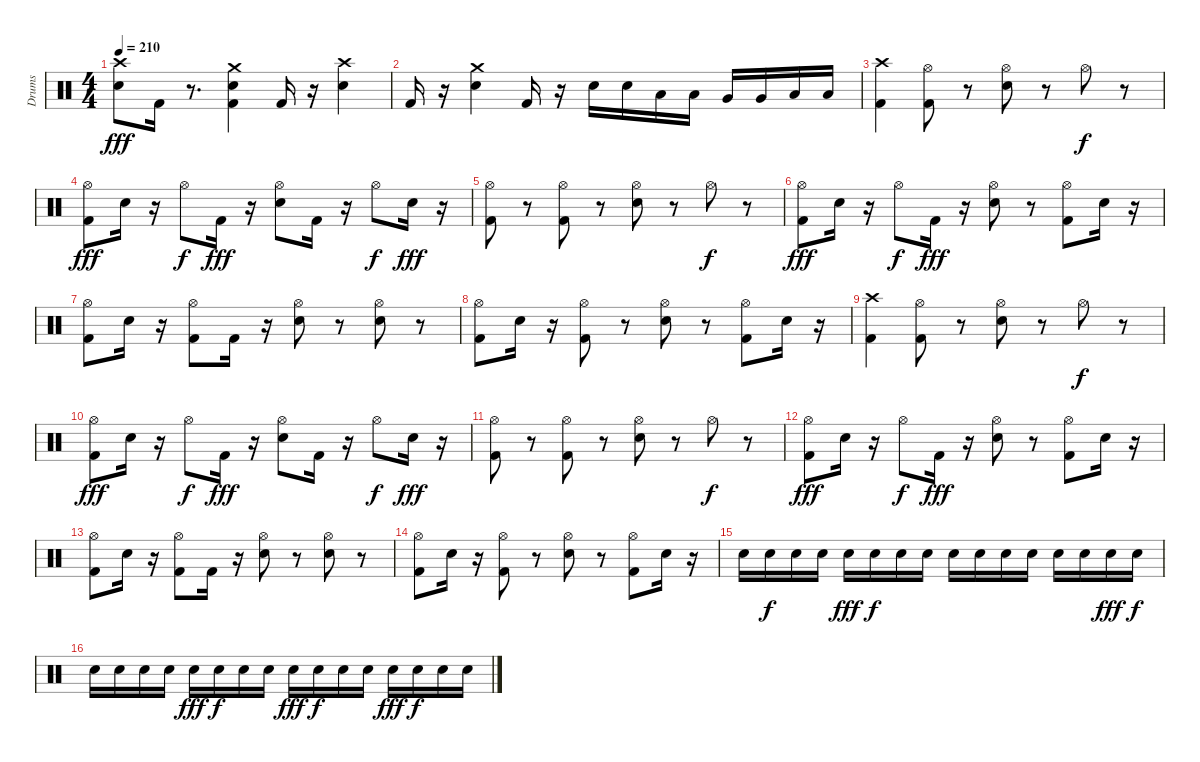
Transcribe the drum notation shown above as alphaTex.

\track ("Drums" "Drums") {instrument percussion}
\staff {score}
\articulation defaults
\ts (4 4)
\tempo 210
\clef neutral
\ks c
("Electric Snare (hit)" "Crash high (hit)").8{dy fff} "Kick (hit) 2".16 r.8{d} ("Electric Snare (hit)" "Kick (hit) 2" "Crash medium (hit)").4 "Kick (hit) 2".16 r.16 ("Electric Snare (hit)" "Crash high (hit)").4 |
"Kick (hit) 2".16 r.16 ("Electric Snare (hit)" "Crash medium (hit)").4 "Kick (hit) 2".16 r.16 "Electric Snare (hit)".16 "Electric Snare (hit)".16 "Low Tom (hit)".16 "Low Tom (hit)".16 "Very Low Tom (hit)".16 "Very Low Tom (hit)".16 "Low Floor Tom (hit)".16 "Low Floor Tom (hit)".16 |
("Kick (hit) 2" "Crash high (hit)").4 ("Kick (hit) 2" "Hi-Hat (open)").8 r.8 ("Electric Snare (hit)" "Hi-Hat (open)").8 r.8 "Hi-Hat (open)".8{dy f} r.8 |
("Kick (hit) 2" "Hi-Hat (open)").8{dy fff} "Electric Snare (hit)".16 r.16 "Hi-Hat (open)".8{dy f} "Kick (hit) 2".16{dy fff} r.16 ("Electric Snare (hit)" "Hi-Hat (open)").8 "Kick (hit) 2".16 r.16 "Hi-Hat (open)".8{dy f} "Electric Snare (hit)".16{dy fff} r.16 |
("Kick (hit) 2" "Hi-Hat (open)").8 r.8 ("Kick (hit) 2" "Hi-Hat (open)").8 r.8 ("Electric Snare (hit)" "Hi-Hat (open)").8 r.8 "Hi-Hat (open)".8{dy f} r.8 |
("Kick (hit) 2" "Hi-Hat (open)").8{dy fff} "Electric Snare (hit)".16 r.16 "Hi-Hat (open)".8{dy f} "Kick (hit) 2".16{dy fff} r.16 ("Electric Snare (hit)" "Hi-Hat (open)").8 r.8 ("Kick (hit) 2" "Hi-Hat (open)").8 "Electric Snare (hit)".16 r.16 |
("Kick (hit) 2" "Hi-Hat (open)").8 "Electric Snare (hit)".16 r.16 ("Kick (hit) 2" "Hi-Hat (open)").8 "Kick (hit) 2".16 r.16 ("Electric Snare (hit)" "Hi-Hat (open)").8 r.8 ("Electric Snare (hit)" "Hi-Hat (open)").8 r.8 |
("Kick (hit) 2" "Hi-Hat (open)").8 "Electric Snare (hit)".16 r.16 ("Kick (hit) 2" "Hi-Hat (open)").8 r.8 ("Electric Snare (hit)" "Hi-Hat (open)").8 r.8 ("Kick (hit) 2" "Hi-Hat (open)").8 "Electric Snare (hit)".16 r.16 |
("Kick (hit) 2" "Crash high (hit)").4 ("Kick (hit) 2" "Hi-Hat (open)").8 r.8 ("Electric Snare (hit)" "Hi-Hat (open)").8 r.8 "Hi-Hat (open)".8{dy f} r.8 |
("Kick (hit) 2" "Hi-Hat (open)").8{dy fff} "Electric Snare (hit)".16 r.16 "Hi-Hat (open)".8{dy f} "Kick (hit) 2".16{dy fff} r.16 ("Electric Snare (hit)" "Hi-Hat (open)").8 "Kick (hit) 2".16 r.16 "Hi-Hat (open)".8{dy f} "Electric Snare (hit)".16{dy fff} r.16 |
("Kick (hit) 2" "Hi-Hat (open)").8 r.8 ("Kick (hit) 2" "Hi-Hat (open)").8 r.8 ("Electric Snare (hit)" "Hi-Hat (open)").8 r.8 "Hi-Hat (open)".8{dy f} r.8 |
("Kick (hit) 2" "Hi-Hat (open)").8{dy fff} "Electric Snare (hit)".16 r.16 "Hi-Hat (open)".8{dy f} "Kick (hit) 2".16{dy fff} r.16 ("Electric Snare (hit)" "Hi-Hat (open)").8 r.8 ("Kick (hit) 2" "Hi-Hat (open)").8 "Electric Snare (hit)".16 r.16 |
("Kick (hit) 2" "Hi-Hat (open)").8 "Electric Snare (hit)".16 r.16 ("Kick (hit) 2" "Hi-Hat (open)").8 "Kick (hit) 2".16 r.16 ("Electric Snare (hit)" "Hi-Hat (open)").8 r.8 ("Electric Snare (hit)" "Hi-Hat (open)").8 r.8 |
("Kick (hit) 2" "Hi-Hat (open)").8 "Electric Snare (hit)".16 r.16 ("Kick (hit) 2" "Hi-Hat (open)").8 r.8 ("Electric Snare (hit)" "Hi-Hat (open)").8 r.8 ("Kick (hit) 2" "Hi-Hat (open)").8 "Electric Snare (hit)".16 r.16 |
"Electric Snare (hit)".16 "Electric Snare (hit)".16{dy f} "Electric Snare (hit)".16 "Electric Snare (hit)".16 "Electric Snare (hit)".16{dy fff} "Electric Snare (hit)".16{dy f} "Electric Snare (hit)".16 "Electric Snare (hit)".16 "Electric Snare (hit)".16 "Electric Snare (hit)".16 "Electric Snare (hit)".16 "Electric Snare (hit)".16 "Electric Snare (hit)".16 "Electric Snare (hit)".16 "Electric Snare (hit)".16{dy fff} "Electric Snare (hit)".16{dy f} |
"Electric Snare (hit)".16 "Electric Snare (hit)".16 "Electric Snare (hit)".16 "Electric Snare (hit)".16 "Electric Snare (hit)".16{dy fff} "Electric Snare (hit)".16{dy f} "Electric Snare (hit)".16 "Electric Snare (hit)".16 "Electric Snare (hit)".16{dy fff} "Electric Snare (hit)".16{dy f} "Electric Snare (hit)".16 "Electric Snare (hit)".16 "Electric Snare (hit)".16{dy fff} "Electric Snare (hit)".16{dy f} "Electric Snare (hit)".16 "Electric Snare (hit)".16
